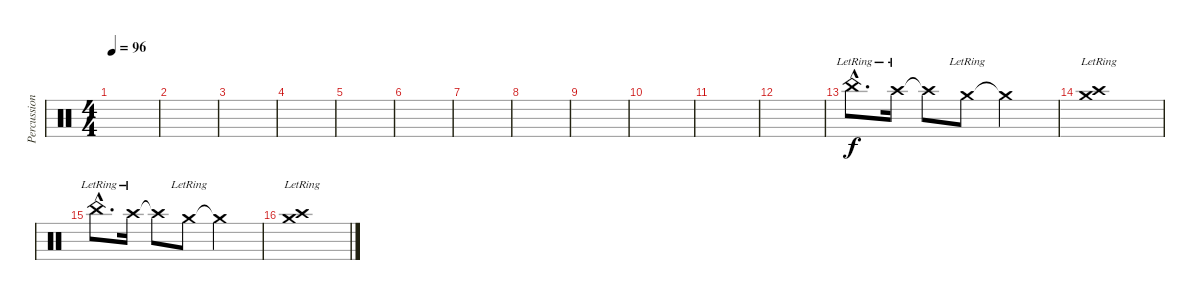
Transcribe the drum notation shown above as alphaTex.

\track ("Percussion" "Percussion") {instrument percussion}
\staff {score}
\articulation defaults
\ts (4 4)
\tempo 96
\clef neutral
\ks c
|
|
|
|
|
|
|
|
|
|
|
|
"China (hit)"{hac lr}.8{d} "Crash high (hit)"{lr}.16 "Crash high (hit)"{t}.8 "Crash medium (hit)"{lr}.8 "Crash medium (hit)"{t}.2 |
("Crash medium (hit)"{lr} "Crash high (hit)"{lr}).1 |
"China (hit)"{hac lr}.8{d} "Crash high (hit)"{lr}.16 "Crash high (hit)"{t}.8 "Crash medium (hit)"{lr}.8 "Crash medium (hit)"{t}.2 |
("Crash medium (hit)"{lr} "Crash high (hit)"{lr}).1
